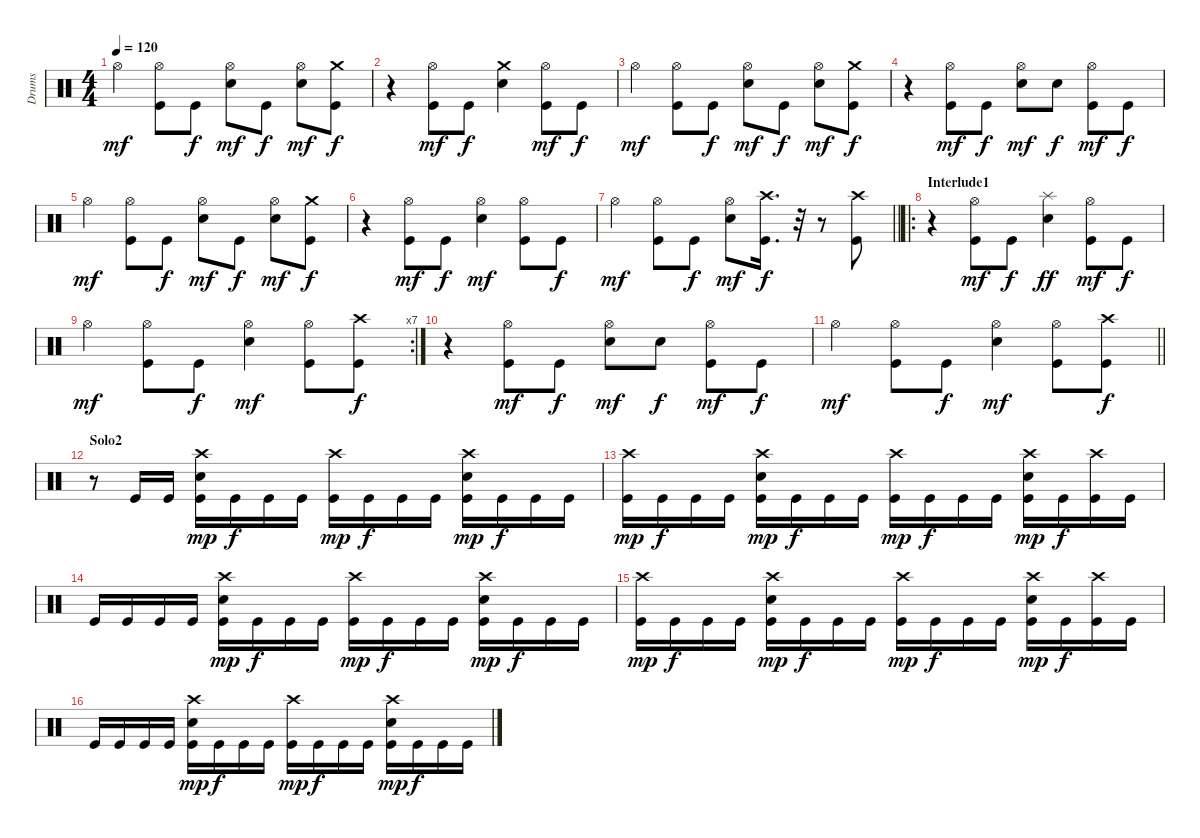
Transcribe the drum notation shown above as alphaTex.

\track ("Drums" "Drums") {instrument percussion}
\staff {score}
\articulation defaults
\ts (4 4)
\tempo 120
\clef neutral
\ks c "Hi-Hat (open)".4{dy mf}
("Hi-Hat (open)" "Kick (hit)").8 "Kick (hit)".8{dy f} ("Hi-Hat (open)" "Snare (hit) 2").8{dy mf} "Kick (hit)".8{dy f} ("Hi-Hat (open)" "Snare (hit) 2").8{dy mf} ("Crash medium (hit)" "Kick (hit)").8{dy f} |
r.4 ("Hi-Hat (open)" "Kick (hit)").8{dy mf} "Kick (hit)".8{dy f} ("Crash medium (hit)" "Snare (hit) 2").4 ("Hi-Hat (open)" "Kick (hit)").8{dy mf} "Kick (hit)".8{dy f} |
"Hi-Hat (open)".4{dy mf} ("Hi-Hat (open)" "Kick (hit)").8 "Kick (hit)".8{dy f} ("Hi-Hat (open)" "Snare (hit) 2").8{dy mf} "Kick (hit)".8{dy f} ("Hi-Hat (open)" "Snare (hit) 2").8{dy mf} ("Crash medium (hit)" "Kick (hit)").8{dy f} |
r.4 ("Hi-Hat (open)" "Kick (hit)").8{dy mf} "Kick (hit)".8{dy f} ("Hi-Hat (open)" "Snare (hit) 2").8{dy mf} "Snare (hit) 2".8{dy f} ("Hi-Hat (open)" "Kick (hit)").8{dy mf} "Kick (hit)".8{dy f} |
"Hi-Hat (open)".4{dy mf} ("Hi-Hat (open)" "Kick (hit)").8 "Kick (hit)".8{dy f} ("Hi-Hat (open)" "Snare (hit) 2").8{dy mf} "Kick (hit)".8{dy f} ("Hi-Hat (open)" "Snare (hit) 2").8{dy mf} ("Crash medium (hit)" "Kick (hit)").8{dy f} |
r.4 ("Hi-Hat (open)" "Kick (hit)").8{dy mf} "Kick (hit)".8{dy f} ("Hi-Hat (open)" "Snare (hit) 2").4{dy mf} ("Hi-Hat (open)" "Kick (hit)").8 "Kick (hit)".8{dy f} |
\barLineRight lightlight "Hi-Hat (open)".4{dy mf}
("Hi-Hat (open)" "Kick (hit)").8 "Kick (hit)".8{dy f} ("Hi-Hat (open)" "Snare (hit) 2").8{dy mf} ("Crash high (hit)" "Kick (hit)").16{d dy f} r.32{volume 0} r.8 ("Crash high (hit)" "Kick (hit)").8{volume 10} |
\ro
\section ("" "Interlude1")
r.4 ("Hi-Hat (open)" "Kick (hit)").8{dy mf} "Kick (hit)".8{dy f} ("Splash (hit)" "Snare (hit) 2").4{dy ff} ("Hi-Hat (open)" "Kick (hit)").8{dy mf} "Kick (hit)".8{dy f} |
\rc 7 "Hi-Hat (open)".4{dy mf}
("Hi-Hat (open)" "Kick (hit)").8 "Kick (hit)".8{dy f} ("Hi-Hat (open)" "Snare (hit) 2").4{dy mf} ("Hi-Hat (open)" "Kick (hit)").8 ("Crash high (hit)" "Kick (hit)").8{dy f} |
r.4 ("Hi-Hat (open)" "Kick (hit)").8{dy mf} "Kick (hit)".8{dy f} ("Hi-Hat (open)" "Snare (hit) 2").8{dy mf} "Snare (hit) 2".8{dy f} ("Hi-Hat (open)" "Kick (hit)").8{dy mf} "Kick (hit)".8{dy f} |
\barLineRight lightlight "Hi-Hat (open)".4{dy mf}
("Hi-Hat (open)" "Kick (hit)").8 "Kick (hit)".8{dy f} ("Hi-Hat (open)" "Snare (hit) 2").4{dy mf} ("Hi-Hat (open)" "Kick (hit)").8 ("Crash high (hit)" "Kick (hit)").8{dy f} |
\section ("" "Solo2")
r.8 "Kick (hit)".16 "Kick (hit)".16 ("Crash high (hit)" "Snare (hit) 2" "Kick (hit)").16{dy mp} "Kick (hit)".16{dy f} "Kick (hit)".16 "Kick (hit)".16 ("Crash high (hit)" "Kick (hit)").16{dy mp} "Kick (hit)".16{dy f} "Kick (hit)".16 "Kick (hit)".16 ("Crash high (hit)" "Snare (hit) 2" "Kick (hit)").16{dy mp} "Kick (hit)".16{dy f} "Kick (hit)".16 "Kick (hit)".16 |
("Crash high (hit)" "Kick (hit)").16{dy mp} "Kick (hit)".16{dy f} "Kick (hit)".16 "Kick (hit)".16 ("Crash high (hit)" "Snare (hit) 2" "Kick (hit)").16{dy mp} "Kick (hit)".16{dy f} "Kick (hit)".16 "Kick (hit)".16 ("Crash high (hit)" "Kick (hit)").16{dy mp} "Kick (hit)".16{dy f} "Kick (hit)".16 "Kick (hit)".16 ("Crash high (hit)" "Snare (hit) 2" "Kick (hit)").16{dy mp} "Kick (hit)".16{dy f} ("Crash high (hit)" "Kick (hit)").16 "Kick (hit)".16 |
"Kick (hit)".16 "Kick (hit)".16 "Kick (hit)".16 "Kick (hit)".16 ("Crash high (hit)" "Snare (hit) 2" "Kick (hit)").16{dy mp} "Kick (hit)".16{dy f} "Kick (hit)".16 "Kick (hit)".16 ("Crash high (hit)" "Kick (hit)").16{dy mp} "Kick (hit)".16{dy f} "Kick (hit)".16 "Kick (hit)".16 ("Crash high (hit)" "Snare (hit) 2" "Kick (hit)").16{dy mp} "Kick (hit)".16{dy f} "Kick (hit)".16 "Kick (hit)".16 |
("Crash high (hit)" "Kick (hit)").16{dy mp} "Kick (hit)".16{dy f} "Kick (hit)".16 "Kick (hit)".16 ("Crash high (hit)" "Snare (hit) 2" "Kick (hit)").16{dy mp} "Kick (hit)".16{dy f} "Kick (hit)".16 "Kick (hit)".16 ("Crash high (hit)" "Kick (hit)").16{dy mp} "Kick (hit)".16{dy f} "Kick (hit)".16 "Kick (hit)".16 ("Crash high (hit)" "Snare (hit) 2" "Kick (hit)").16{dy mp} "Kick (hit)".16{dy f} ("Crash high (hit)" "Kick (hit)").16 "Kick (hit)".16 |
"Kick (hit)".16 "Kick (hit)".16 "Kick (hit)".16 "Kick (hit)".16 ("Crash high (hit)" "Snare (hit) 2" "Kick (hit)").16{dy mp} "Kick (hit)".16{dy f} "Kick (hit)".16 "Kick (hit)".16 ("Crash high (hit)" "Kick (hit)").16{dy mp} "Kick (hit)".16{dy f} "Kick (hit)".16 "Kick (hit)".16 ("Crash high (hit)" "Snare (hit) 2" "Kick (hit)").16{dy mp} "Kick (hit)".16{dy f} "Kick (hit)".16 "Kick (hit)".16
